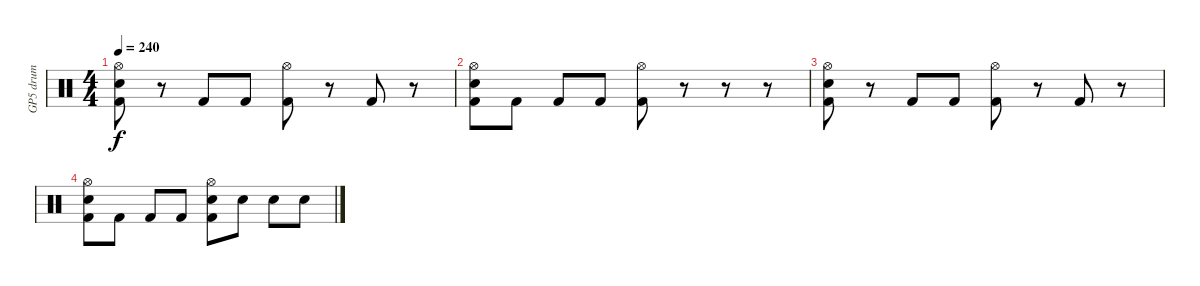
\track ("GP5 drum" "GP5 drum") {instrument percussion}
\staff {score}
\articulation defaults
\ts (4 4)
\tempo 240
\clef neutral
\ks c
("Hi-Hat (open)" "Electric Snare (hit)" "Kick (hit) 2").8{dy f} r.8 "Kick (hit) 2".8 "Kick (hit) 2".8 ("Hi-Hat (open)" "Kick (hit) 2").8 r.8 "Kick (hit) 2".8 r.8 |
("Hi-Hat (open)" "Electric Snare (hit)" "Kick (hit) 2").8 "Kick (hit) 2".8 "Kick (hit) 2".8 "Kick (hit) 2".8 ("Hi-Hat (open)" "Kick (hit) 2").8 r.8 r.8 r.8 |
("Hi-Hat (open)" "Electric Snare (hit)" "Kick (hit) 2").8 r.8 "Kick (hit) 2".8 "Kick (hit) 2".8 ("Hi-Hat (open)" "Kick (hit) 2").8 r.8 "Kick (hit) 2".8 r.8 |
("Hi-Hat (open)" "Electric Snare (hit)" "Kick (hit) 2").8 "Kick (hit) 2".8 "Kick (hit) 2".8 "Kick (hit) 2".8 ("Hi-Hat (open)" "Electric Snare (hit)" "Kick (hit) 2").8 "Electric Snare (hit)".8 "Electric Snare (hit)".8 "Electric Snare (hit)".8
